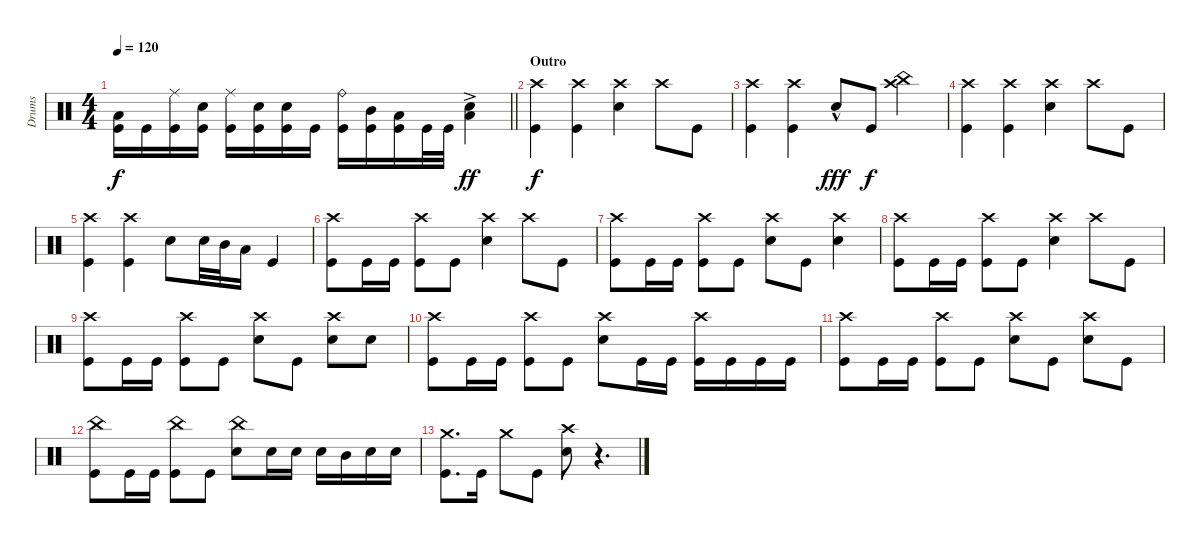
\track ("Drums" "Drums") {instrument percussion}
\staff {score}
\articulation defaults
\ts (4 4)
\tempo 120
\clef neutral
\barLineRight lightlight
\ks c
("Low Tom (hit)" "Kick (hit)").16{dy f} "Kick (hit)".16 ("Ride (middle)" "Kick (hit)").16 ("Electric Snare (hit)" "Kick (hit)").16 ("Ride (middle)" "Kick (hit)").16 ("Electric Snare (hit)" "Kick (hit)").16 ("Electric Snare (hit)" "Kick (hit)").16 "Kick (hit)".16 ("Ride (bell)" "Kick (hit)").16 ("Mid Tom (hit)" "Kick (hit)").16 ("Low Tom (hit)" "Kick (hit)").16 "Kick (hit)".32 "Kick (hit)".32 ("Low Tom (hit)"{ac} "Electric Snare (hit)").4{dy ff} |
\section ("" "Outro")
("Crash high (hit)" "Kick (hit)").4{dy f} ("Crash high (hit)" "Kick (hit)").4 ("Crash high (hit)" "Electric Snare (hit)").4 "Crash high (hit)".8 "Kick (hit)".8 |
("Crash high (hit)" "Kick (hit)").4 ("Crash high (hit)" "Kick (hit)").4 "Electric Snare (hit)"{hac}.8{dy fff} "Kick (hit)".8{dy f} ("China (hit)" "Crash high (hit)").4 |
("Crash high (hit)" "Kick (hit)").4 ("Crash high (hit)" "Kick (hit)").4 ("Crash high (hit)" "Electric Snare (hit)").4 "Crash high (hit)".8 "Kick (hit)".8 |
("Crash high (hit)" "Kick (hit)").4 ("Crash high (hit)" "Kick (hit)").4 "Electric Snare (hit)".8 "Electric Snare (hit)".32 "Mid Tom (hit)".32 "Low Tom (hit)".16 "Kick (hit)".4 |
("Crash high (hit)" "Kick (hit)").8 "Kick (hit)".16 "Kick (hit)".16 ("Crash high (hit)" "Kick (hit)").8 "Kick (hit)".8 ("Crash high (hit)" "Electric Snare (hit)").4 "Crash high (hit)".8 "Kick (hit)".8 |
("Crash high (hit)" "Kick (hit)").8 "Kick (hit)".16 "Kick (hit)".16 ("Crash high (hit)" "Kick (hit)").8 "Kick (hit)".8 ("Crash high (hit)" "Electric Snare (hit)").8 "Kick (hit)".8 ("Crash high (hit)" "Electric Snare (hit)").4 |
("Crash high (hit)" "Kick (hit)").8 "Kick (hit)".16 "Kick (hit)".16 ("Crash high (hit)" "Kick (hit)").8 "Kick (hit)".8 ("Crash high (hit)" "Electric Snare (hit)").4 "Crash high (hit)".8 "Kick (hit)".8 |
("Crash high (hit)" "Kick (hit)").8 "Kick (hit)".16 "Kick (hit)".16 ("Crash high (hit)" "Kick (hit)").8 "Kick (hit)".8 ("Crash high (hit)" "Electric Snare (hit)").8 "Kick (hit)".8 ("Crash high (hit)" "Electric Snare (hit)").8 "Electric Snare (hit)".8 |
("Crash high (hit)" "Kick (hit)").8 "Kick (hit)".16 "Kick (hit)".16 ("Crash high (hit)" "Kick (hit)").8 "Kick (hit)".8 ("Crash high (hit)" "Electric Snare (hit)").8 "Kick (hit)".16 "Kick (hit)".16 ("Crash high (hit)" "Kick (hit)").16 "Kick (hit)".16 "Kick (hit)".16 "Kick (hit)".16 |
("Crash high (hit)" "Kick (hit)").8 "Kick (hit)".16 "Kick (hit)".16 ("Crash high (hit)" "Kick (hit)").8 "Kick (hit)".8 ("Crash high (hit)" "Electric Snare (hit)").8 "Kick (hit)".8 ("Crash high (hit)" "Electric Snare (hit)").8 "Kick (hit)".8 |
("China (hit)" "Kick (hit)").8 "Kick (hit)".16 "Kick (hit)".16 ("China (hit)" "Kick (hit)").8 "Kick (hit)".8 ("China (hit)" "Electric Snare (hit)").8 "Electric Snare (hit)".16 "Electric Snare (hit)".16 "Electric Snare (hit)".16 "Mid Tom (hit)".16 "Electric Snare (hit)".16 "Electric Snare (hit)".16 |
("Crash medium (hit)" "Kick (hit)").8{d} "Kick (hit)".16 "Crash medium (hit)".8 "Kick (hit)".8 ("Crash high (hit)" "Electric Snare (hit)").8 r.4{d}
